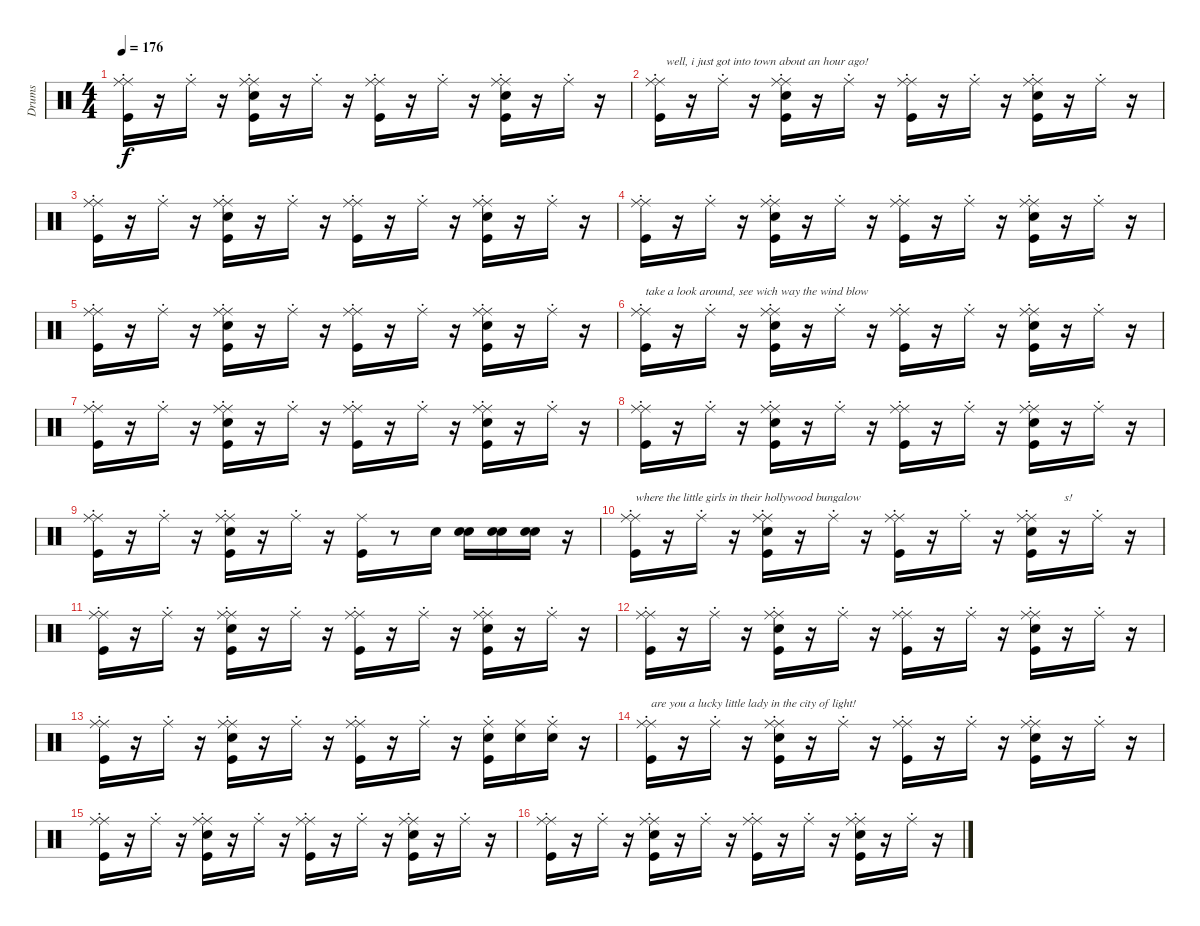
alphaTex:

\track ("Drums" "Drums") {instrument percussion}
\staff {score}
\articulation defaults
\ts (4 4)
\tempo 176
\clef neutral
\ks c
("Ride (middle)" "Kick (hit)" "Ride (choke)").16{dy f} r.16 "Ride (choke)".16 r.16 ("Ride (middle)" "Kick (hit)" "Snare (hit) 2" "Ride (choke)").16 r.16 "Ride (choke)".16 r.16 ("Ride (middle)" "Kick (hit)" "Ride (choke)").16 r.16 "Ride (choke)".16 r.16 ("Kick (hit)" "Snare (hit) 2" "Ride (choke)" "Ride (middle)").16 r.16 "Ride (choke)".16 r.16 |
("Ride (middle)" "Kick (hit)" "Ride (choke)").16{txt "  well, i just got into town about an hour ago!"} r.16 "Ride (choke)".16 r.16 ("Ride (middle)" "Kick (hit)" "Snare (hit) 2" "Ride (choke)").16 r.16 "Ride (choke)".16 r.16 ("Ride (middle)" "Kick (hit)" "Ride (choke)").16 r.16 "Ride (choke)".16 r.16 ("Ride (middle)" "Kick (hit)" "Snare (hit) 2" "Ride (choke)").16 r.16 "Ride (choke)".16 r.16 |
("Ride (middle)" "Kick (hit)" "Ride (choke)").16 r.16 "Ride (choke)".16 r.16 ("Ride (middle)" "Kick (hit)" "Snare (hit) 2" "Ride (choke)").16 r.16 "Ride (choke)".16 r.16 ("Ride (middle)" "Kick (hit)" "Ride (choke)").16 r.16 "Ride (choke)".16 r.16 ("Kick (hit)" "Snare (hit) 2" "Ride (choke)" "Ride (middle)").16 r.16 "Ride (choke)".16 r.16 |
("Ride (middle)" "Kick (hit)" "Ride (choke)").16 r.16 "Ride (choke)".16 r.16 ("Ride (middle)" "Kick (hit)" "Snare (hit) 2" "Ride (choke)").16 r.16 "Ride (choke)".16 r.16 ("Ride (middle)" "Kick (hit)" "Ride (choke)").16 r.16 "Ride (choke)".16 r.16 ("Ride (middle)" "Kick (hit)" "Snare (hit) 2" "Ride (choke)").16 r.16 "Ride (choke)".16 r.16 |
("Ride (middle)" "Kick (hit)" "Ride (choke)").16 r.16 "Ride (choke)".16 r.16 ("Ride (middle)" "Kick (hit)" "Snare (hit) 2" "Ride (choke)").16 r.16 "Ride (choke)".16 r.16 ("Ride (middle)" "Kick (hit)" "Ride (choke)").16 r.16 "Ride (choke)".16 r.16 ("Kick (hit)" "Snare (hit) 2" "Ride (choke)" "Ride (middle)").16 r.16 "Ride (choke)".16 r.16 |
("Ride (middle)" "Kick (hit)" "Ride (choke)").16{txt "take a look around, see wich way the wind blow"} r.16 "Ride (choke)".16 r.16 ("Ride (middle)" "Kick (hit)" "Snare (hit) 2" "Ride (choke)").16 r.16 "Ride (choke)".16 r.16 ("Ride (middle)" "Kick (hit)" "Ride (choke)").16 r.16 "Ride (choke)".16 r.16 ("Ride (middle)" "Kick (hit)" "Snare (hit) 2" "Ride (choke)").16 r.16 "Ride (choke)".16 r.16 |
("Ride (middle)" "Kick (hit)" "Ride (choke)").16 r.16 "Ride (choke)".16 r.16 ("Ride (middle)" "Kick (hit)" "Snare (hit) 2" "Ride (choke)").16 r.16 "Ride (choke)".16 r.16 ("Ride (middle)" "Kick (hit)" "Ride (choke)").16 r.16 "Ride (choke)".16 r.16 ("Kick (hit)" "Snare (hit) 2" "Ride (choke)" "Ride (middle)").16 r.16 "Ride (choke)".16 r.16 |
("Ride (middle)" "Kick (hit)" "Ride (choke)").16 r.16 "Ride (choke)".16 r.16 ("Ride (middle)" "Kick (hit)" "Snare (hit) 2" "Ride (choke)").16 r.16 "Ride (choke)".16 r.16 ("Ride (middle)" "Kick (hit)" "Ride (choke)").16 r.16 "Ride (choke)".16 r.16 ("Ride (middle)" "Kick (hit)" "Snare (hit) 2" "Ride (choke)").16 r.16 "Ride (choke)".16 r.16 |
("Ride (middle)" "Kick (hit)" "Ride (choke)").16 r.16 "Ride (choke)".16 r.16 ("Ride (middle)" "Kick (hit)" "Snare (hit) 2" "Ride (choke)").16 r.16 "Ride (choke)".16 r.16 ("Ride (middle)" "Kick (hit)").16 r.8 "Snare (hit) 2".16 ("Snare (hit)" "Snare (hit) 2").16 ("Snare (hit)" "Snare (hit) 2").16 ("Snare (hit)" "Snare (hit) 2").16 r.16 |
("Ride (middle)" "Kick (hit)" "Ride (choke)").16{txt "where the little girls in their hollywood bungalow"} r.16 "Ride (choke)".16 r.16 ("Ride (middle)" "Kick (hit)" "Snare (hit) 2" "Ride (choke)").16 r.16 "Ride (choke)".16 r.16 ("Ride (middle)" "Kick (hit)" "Ride (choke)").16 r.16 "Ride (choke)".16 r.16 ("Ride (middle)" "Kick (hit)" "Snare (hit) 2" "Ride (choke)").16 r.16{txt "s!"} "Ride (choke)".16 r.16 |
("Ride (middle)" "Kick (hit)" "Ride (choke)").16 r.16 "Ride (choke)".16 r.16 ("Ride (middle)" "Kick (hit)" "Snare (hit) 2" "Ride (choke)").16 r.16 "Ride (choke)".16 r.16 ("Ride (middle)" "Kick (hit)" "Ride (choke)").16 r.16 "Ride (choke)".16 r.16 ("Kick (hit)" "Snare (hit) 2" "Ride (choke)" "Ride (middle)").16 r.16 "Ride (choke)".16 r.16 |
("Ride (middle)" "Kick (hit)" "Ride (choke)").16 r.16 "Ride (choke)".16 r.16 ("Ride (middle)" "Kick (hit)" "Snare (hit) 2" "Ride (choke)").16 r.16 "Ride (choke)".16 r.16 ("Ride (middle)" "Kick (hit)" "Ride (choke)").16 r.16 "Ride (choke)".16 r.16 ("Ride (middle)" "Kick (hit)" "Snare (hit) 2" "Ride (choke)").16 r.16 "Ride (choke)".16 r.16 |
("Ride (middle)" "Kick (hit)" "Ride (choke)").16 r.16 "Ride (choke)".16 r.16 ("Ride (middle)" "Kick (hit)" "Snare (hit) 2" "Ride (choke)").16 r.16 "Ride (choke)".16 r.16 ("Ride (middle)" "Kick (hit)" "Ride (choke)").16 r.16 "Ride (choke)".16 r.16 ("Snare (hit) 2" "Kick (hit)" "Ride (choke)").16 ("Snare (hit)" "Ride (middle)").16 ("Snare (hit)" "Ride (choke)").16 r.16 |
("Ride (middle)" "Kick (hit)" "Ride (choke)").16{txt "are you a lucky little lady in the city of light!"} r.16 "Ride (choke)".16 r.16 ("Ride (middle)" "Kick (hit)" "Snare (hit) 2" "Ride (choke)").16 r.16 "Ride (choke)".16 r.16 ("Ride (middle)" "Kick (hit)" "Ride (choke)").16 r.16 "Ride (choke)".16 r.16 ("Ride (middle)" "Kick (hit)" "Snare (hit) 2" "Ride (choke)").16 r.16 "Ride (choke)".16 r.16 |
("Ride (middle)" "Kick (hit)" "Ride (choke)").16 r.16 "Ride (choke)".16 r.16 ("Ride (middle)" "Kick (hit)" "Snare (hit) 2" "Ride (choke)").16 r.16 "Ride (choke)".16 r.16 ("Ride (middle)" "Kick (hit)" "Ride (choke)").16 r.16 "Ride (choke)".16 r.16 ("Kick (hit)" "Snare (hit) 2" "Ride (choke)" "Ride (middle)").16 r.16 "Ride (choke)".16 r.16 |
("Ride (middle)" "Kick (hit)" "Ride (choke)").16 r.16 "Ride (choke)".16 r.16 ("Ride (middle)" "Kick (hit)" "Snare (hit) 2" "Ride (choke)").16 r.16 "Ride (choke)".16 r.16 ("Ride (middle)" "Kick (hit)" "Ride (choke)").16 r.16 "Ride (choke)".16 r.16 ("Ride (middle)" "Kick (hit)" "Snare (hit) 2" "Ride (choke)").16 r.16 "Ride (choke)".16 r.16
